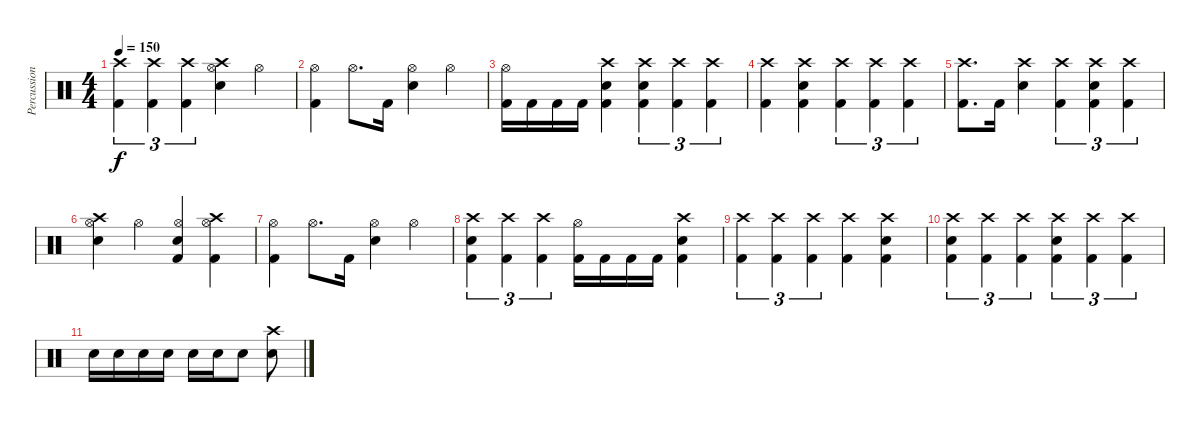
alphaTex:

\track ("Percussion" "Percussion") {instrument percussion}
\staff {score}
\articulation defaults
\ts (4 4)
\tempo 150
\clef neutral
\ks c
("Crash high (hit)" "Kick (hit) 2").4{tu (3 2) dy f} ("Crash high (hit)" "Kick (hit) 2").4{tu (3 2)} ("Crash high (hit)" "Kick (hit) 2").4{tu (3 2)} ("Crash high (hit)" "Hi-Hat (open)" "Snare (hit) 2").4 "Hi-Hat (open)".4 |
("Hi-Hat (open)" "Kick (hit) 2").4 "Hi-Hat (open)".8{d} "Kick (hit) 2".16 ("Hi-Hat (open)" "Snare (hit) 2").4 "Hi-Hat (open)".4 |
("Hi-Hat (open)" "Kick (hit) 2").16 "Kick (hit) 2".16 "Kick (hit) 2".16 "Kick (hit) 2".16 ("Crash high (hit)" "Snare (hit) 2" "Kick (hit) 2").4 ("Crash high (hit)" "Snare (hit) 2" "Kick (hit) 2").4{tu (3 2)} ("Crash high (hit)" "Kick (hit) 2").4{tu (3 2)} ("Crash high (hit)" "Kick (hit) 2").4{tu (3 2)} |
("Crash high (hit)" "Kick (hit) 2").4 ("Crash high (hit)" "Snare (hit) 2" "Kick (hit) 2").4 ("Crash high (hit)" "Kick (hit) 2").4{tu (3 2)} ("Crash high (hit)" "Kick (hit) 2").4{tu (3 2)} ("Crash high (hit)" "Kick (hit) 2").4{tu (3 2)} |
("Crash high (hit)" "Kick (hit) 2").8{d} "Kick (hit) 2".16 ("Crash high (hit)" "Snare (hit) 2").4 ("Crash high (hit)" "Kick (hit) 2").4{tu (3 2)} ("Crash high (hit)" "Snare (hit) 2" "Kick (hit) 2").4{tu (3 2)} ("Crash high (hit)" "Kick (hit) 2").4{tu (3 2)} |
("Crash high (hit)" "Hi-Hat (open)" "Snare (hit) 2").4 "Hi-Hat (open)".4 ("Hi-Hat (open)" "Snare (hit) 2" "Kick (hit) 2").4 ("Crash high (hit)" "Hi-Hat (open)" "Kick (hit) 2").4 |
("Hi-Hat (open)" "Kick (hit) 2").4 "Hi-Hat (open)".8{d} "Kick (hit) 2".16 ("Hi-Hat (open)" "Snare (hit) 2").4 "Hi-Hat (open)".4 |
("Crash high (hit)" "Snare (hit) 2" "Kick (hit) 2").4{tu (3 2)} ("Crash high (hit)" "Kick (hit) 2").4{tu (3 2)} ("Crash high (hit)" "Kick (hit) 2").4{tu (3 2)} ("Hi-Hat (open)" "Kick (hit) 2").16 "Kick (hit) 2".16 "Kick (hit) 2".16 "Kick (hit) 2".16 ("Crash high (hit)" "Snare (hit) 2" "Kick (hit) 2").4 |
("Crash high (hit)" "Kick (hit) 2").4{tu (3 2)} ("Crash high (hit)" "Kick (hit) 2").4{tu (3 2)} ("Crash high (hit)" "Kick (hit) 2").4{tu (3 2)} ("Crash high (hit)" "Kick (hit) 2").4 ("Crash high (hit)" "Snare (hit) 2" "Kick (hit) 2").4 |
("Crash high (hit)" "Snare (hit) 2" "Kick (hit) 2").4{tu (3 2)} ("Crash high (hit)" "Kick (hit) 2").4{tu (3 2)} ("Crash high (hit)" "Kick (hit) 2").4{tu (3 2)} ("Crash high (hit)" "Snare (hit) 2" "Kick (hit) 2").4{tu (3 2)} ("Crash high (hit)" "Kick (hit) 2").4{tu (3 2)} ("Crash high (hit)" "Kick (hit) 2").4{tu (3 2)} |
"Snare (hit) 2".16 "Snare (hit) 2".16 "Snare (hit) 2".16 "Snare (hit) 2".16 "Snare (hit) 2".16 "Snare (hit) 2".16 "Snare (hit) 2".8 ("Crash high (hit)" "Snare (hit) 2").8
